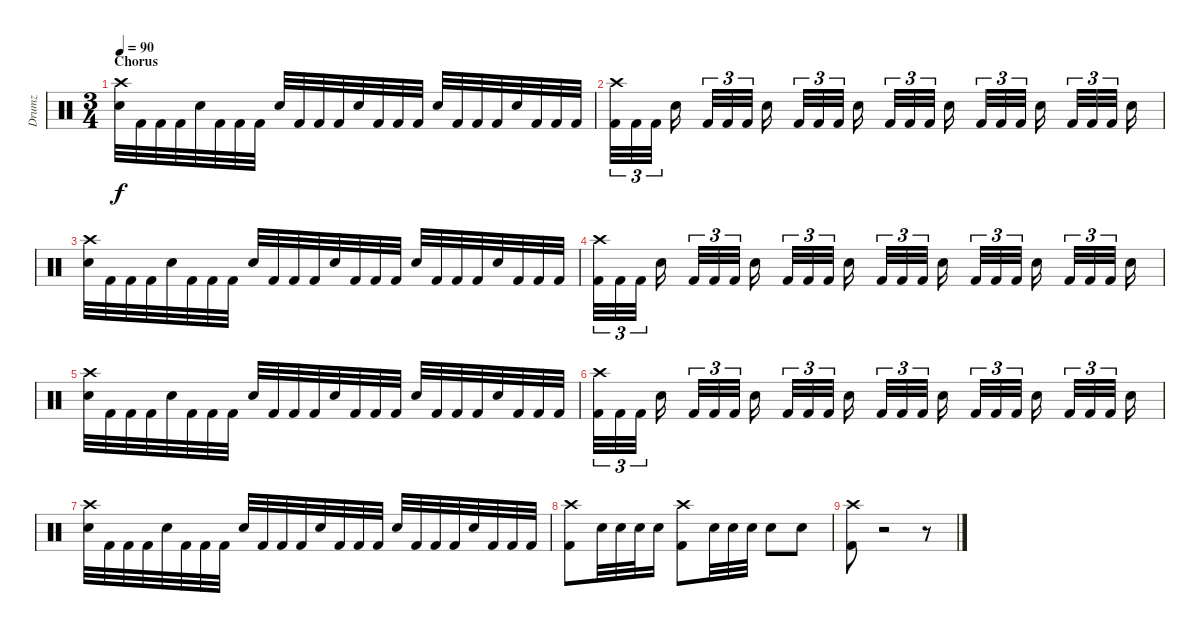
\track ("Drumz" "Drumz") {instrument percussion}
\staff {score}
\articulation defaults
\ts (3 4)
\section ("" "Chorus")
\tempo 90
\clef neutral
\ks c
("Crash high (hit)" "Snare (hit) 2").32{dy f} "Kick (hit) 2".32 "Kick (hit) 2".32 "Kick (hit) 2".32 "Snare (hit) 2".32 "Kick (hit) 2".32 "Kick (hit) 2".32 "Kick (hit) 2".32 "Snare (hit) 2".32 "Kick (hit) 2".32 "Kick (hit) 2".32 "Kick (hit) 2".32 "Snare (hit) 2".32 "Kick (hit) 2".32 "Kick (hit) 2".32 "Kick (hit) 2".32 "Snare (hit) 2".32 "Kick (hit) 2".32 "Kick (hit) 2".32 "Kick (hit) 2".32 "Snare (hit) 2".32 "Kick (hit) 2".32 "Kick (hit) 2".32 "Kick (hit) 2".32 |
("Crash high (hit)" "Kick (hit) 2").32{tu (3 2)} "Kick (hit) 2".32{tu (3 2)} "Kick (hit) 2".32{tu (3 2) beam splitsecondary} "Snare (hit) 2".16{beam splitsecondary} "Kick (hit) 2".32{tu (3 2)} "Kick (hit) 2".32{tu (3 2)} "Kick (hit) 2".32{tu (3 2) beam splitsecondary} "Snare (hit) 2".16 "Kick (hit) 2".32{tu (3 2)} "Kick (hit) 2".32{tu (3 2)} "Kick (hit) 2".32{tu (3 2) beam splitsecondary} "Snare (hit) 2".16{beam splitsecondary} "Kick (hit) 2".32{tu (3 2)} "Kick (hit) 2".32{tu (3 2)} "Kick (hit) 2".32{tu (3 2) beam splitsecondary} "Snare (hit) 2".16 "Kick (hit) 2".32{tu (3 2)} "Kick (hit) 2".32{tu (3 2)} "Kick (hit) 2".32{tu (3 2) beam splitsecondary} "Snare (hit) 2".16{beam splitsecondary} "Kick (hit) 2".32{tu (3 2)} "Kick (hit) 2".32{tu (3 2)} "Kick (hit) 2".32{tu (3 2) beam splitsecondary} "Snare (hit) 2".16 |
("Crash high (hit)" "Snare (hit) 2").32 "Kick (hit) 2".32 "Kick (hit) 2".32 "Kick (hit) 2".32 "Snare (hit) 2".32 "Kick (hit) 2".32 "Kick (hit) 2".32 "Kick (hit) 2".32 "Snare (hit) 2".32 "Kick (hit) 2".32 "Kick (hit) 2".32 "Kick (hit) 2".32 "Snare (hit) 2".32 "Kick (hit) 2".32 "Kick (hit) 2".32 "Kick (hit) 2".32 "Snare (hit) 2".32 "Kick (hit) 2".32 "Kick (hit) 2".32 "Kick (hit) 2".32 "Snare (hit) 2".32 "Kick (hit) 2".32 "Kick (hit) 2".32 "Kick (hit) 2".32 |
("Crash high (hit)" "Kick (hit) 2").32{tu (3 2)} "Kick (hit) 2".32{tu (3 2)} "Kick (hit) 2".32{tu (3 2) beam splitsecondary} "Snare (hit) 2".16{beam splitsecondary} "Kick (hit) 2".32{tu (3 2)} "Kick (hit) 2".32{tu (3 2)} "Kick (hit) 2".32{tu (3 2) beam splitsecondary} "Snare (hit) 2".16 "Kick (hit) 2".32{tu (3 2)} "Kick (hit) 2".32{tu (3 2)} "Kick (hit) 2".32{tu (3 2) beam splitsecondary} "Snare (hit) 2".16{beam splitsecondary} "Kick (hit) 2".32{tu (3 2)} "Kick (hit) 2".32{tu (3 2)} "Kick (hit) 2".32{tu (3 2) beam splitsecondary} "Snare (hit) 2".16 "Kick (hit) 2".32{tu (3 2)} "Kick (hit) 2".32{tu (3 2)} "Kick (hit) 2".32{tu (3 2) beam splitsecondary} "Snare (hit) 2".16{beam splitsecondary} "Kick (hit) 2".32{tu (3 2)} "Kick (hit) 2".32{tu (3 2)} "Kick (hit) 2".32{tu (3 2) beam splitsecondary} "Snare (hit) 2".16 |
("Crash high (hit)" "Snare (hit) 2").32 "Kick (hit) 2".32 "Kick (hit) 2".32 "Kick (hit) 2".32 "Snare (hit) 2".32 "Kick (hit) 2".32 "Kick (hit) 2".32 "Kick (hit) 2".32 "Snare (hit) 2".32 "Kick (hit) 2".32 "Kick (hit) 2".32 "Kick (hit) 2".32 "Snare (hit) 2".32 "Kick (hit) 2".32 "Kick (hit) 2".32 "Kick (hit) 2".32 "Snare (hit) 2".32 "Kick (hit) 2".32 "Kick (hit) 2".32 "Kick (hit) 2".32 "Snare (hit) 2".32 "Kick (hit) 2".32 "Kick (hit) 2".32 "Kick (hit) 2".32 |
("Crash high (hit)" "Kick (hit) 2").32{tu (3 2)} "Kick (hit) 2".32{tu (3 2)} "Kick (hit) 2".32{tu (3 2) beam splitsecondary} "Snare (hit) 2".16{beam splitsecondary} "Kick (hit) 2".32{tu (3 2)} "Kick (hit) 2".32{tu (3 2)} "Kick (hit) 2".32{tu (3 2) beam splitsecondary} "Snare (hit) 2".16 "Kick (hit) 2".32{tu (3 2)} "Kick (hit) 2".32{tu (3 2)} "Kick (hit) 2".32{tu (3 2) beam splitsecondary} "Snare (hit) 2".16{beam splitsecondary} "Kick (hit) 2".32{tu (3 2)} "Kick (hit) 2".32{tu (3 2)} "Kick (hit) 2".32{tu (3 2) beam splitsecondary} "Snare (hit) 2".16 "Kick (hit) 2".32{tu (3 2)} "Kick (hit) 2".32{tu (3 2)} "Kick (hit) 2".32{tu (3 2) beam splitsecondary} "Snare (hit) 2".16{beam splitsecondary} "Kick (hit) 2".32{tu (3 2)} "Kick (hit) 2".32{tu (3 2)} "Kick (hit) 2".32{tu (3 2) beam splitsecondary} "Snare (hit) 2".16 |
("Crash high (hit)" "Snare (hit) 2").32 "Kick (hit) 2".32 "Kick (hit) 2".32 "Kick (hit) 2".32 "Snare (hit) 2".32 "Kick (hit) 2".32 "Kick (hit) 2".32 "Kick (hit) 2".32 "Snare (hit) 2".32 "Kick (hit) 2".32 "Kick (hit) 2".32 "Kick (hit) 2".32 "Snare (hit) 2".32 "Kick (hit) 2".32 "Kick (hit) 2".32 "Kick (hit) 2".32 "Snare (hit) 2".32 "Kick (hit) 2".32 "Kick (hit) 2".32 "Kick (hit) 2".32 "Snare (hit) 2".32 "Kick (hit) 2".32 "Kick (hit) 2".32 "Kick (hit) 2".32 |
("Crash high (hit)" "Kick (hit) 2").8 "Snare (hit) 2".32 "Snare (hit) 2".32 "Snare (hit) 2".32 "Snare (hit) 2".16 ("Crash high (hit)" "Kick (hit) 2").8 "Snare (hit) 2".32 "Snare (hit) 2".32 "Snare (hit) 2".32 "Snare (hit) 2".8 "Snare (hit) 2".8 |
("Crash high (hit)" "Kick (hit) 2").8 r.2 r.8
